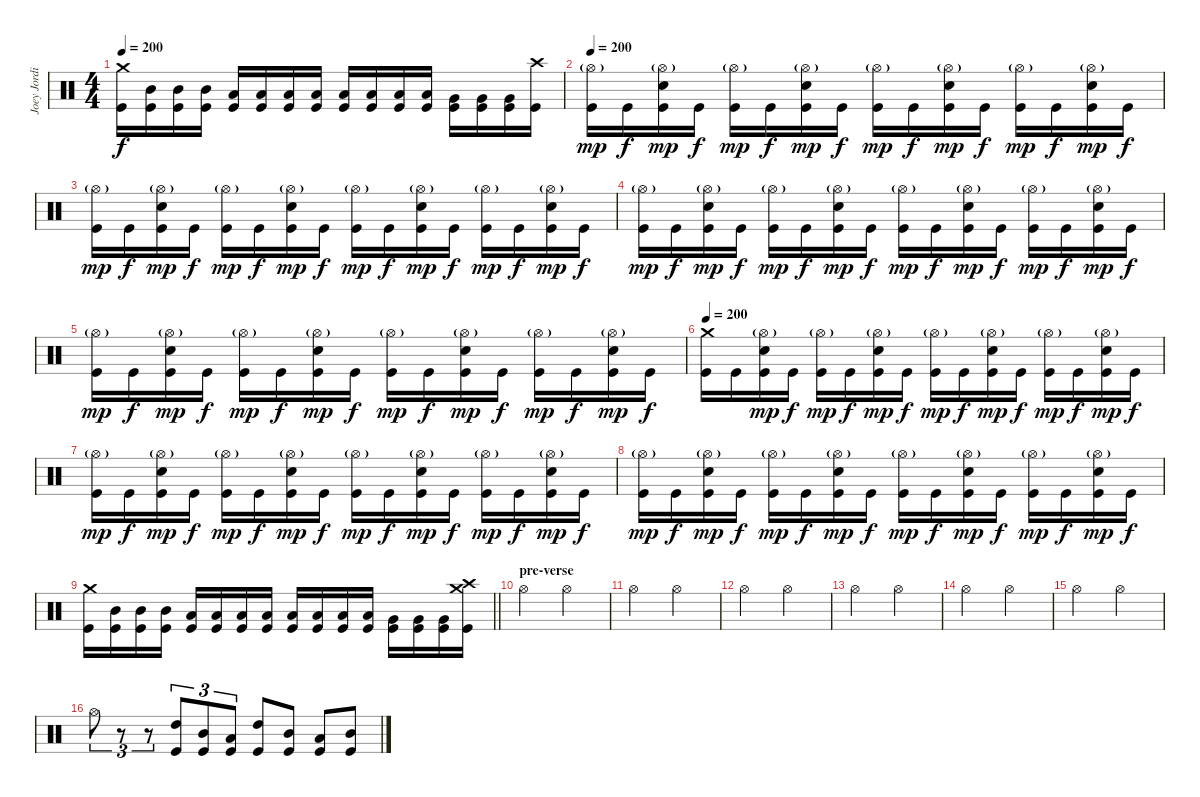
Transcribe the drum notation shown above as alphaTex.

\track ("Joey Jordison" "Joey Jordi") {instrument percussion}
\staff {score}
\articulation defaults
\ts (4 4)
\tempo 200
\clef neutral
\ks c
("Crash medium (hit)" "Kick (hit)").16{dy f} ("Mid Tom (hit)" "Kick (hit)").16 ("Mid Tom (hit)" "Kick (hit)").16 ("Mid Tom (hit)" "Kick (hit)").16 ("Low Tom (hit)" "Kick (hit)").16 ("Low Tom (hit)" "Kick (hit)").16 ("Low Tom (hit)" "Kick (hit)").16 ("Low Tom (hit)" "Kick (hit)").16 ("Low Floor Tom (hit)" "Kick (hit)").16 ("Low Floor Tom (hit)" "Kick (hit)").16 ("Low Floor Tom (hit)" "Kick (hit)").16 ("Low Floor Tom (hit)" "Kick (hit)").16 ("Very Low Tom (hit)" "Kick (hit)").16 ("Very Low Tom (hit)" "Kick (hit)").16 ("Very Low Tom (hit)" "Kick (hit)").16 ("Crash high (hit)" "Kick (hit)").16 |
\tempo 200
("Hi-Hat (open)"{g} "Kick (hit)").16{dy mp} "Kick (hit)".16{dy f} ("Hi-Hat (open)"{g} "Electric Snare (hit)" "Kick (hit)").16{dy mp} "Kick (hit)".16{dy f} ("Hi-Hat (open)"{g} "Kick (hit)").16{dy mp} "Kick (hit)".16{dy f} ("Hi-Hat (open)"{g} "Electric Snare (hit)" "Kick (hit)").16{dy mp} "Kick (hit)".16{dy f} ("Hi-Hat (open)"{g} "Kick (hit)").16{dy mp} "Kick (hit)".16{dy f} ("Hi-Hat (open)"{g} "Electric Snare (hit)" "Kick (hit)").16{dy mp} "Kick (hit)".16{dy f} ("Hi-Hat (open)"{g} "Kick (hit)").16{dy mp} "Kick (hit)".16{dy f} ("Hi-Hat (open)"{g} "Electric Snare (hit)" "Kick (hit)").16{dy mp} "Kick (hit)".16{dy f} |
("Hi-Hat (open)"{g} "Kick (hit)").16{dy mp} "Kick (hit)".16{dy f} ("Hi-Hat (open)"{g} "Electric Snare (hit)" "Kick (hit)").16{dy mp} "Kick (hit)".16{dy f} ("Hi-Hat (open)"{g} "Kick (hit)").16{dy mp} "Kick (hit)".16{dy f} ("Hi-Hat (open)"{g} "Electric Snare (hit)" "Kick (hit)").16{dy mp} "Kick (hit)".16{dy f} ("Hi-Hat (open)"{g} "Kick (hit)").16{dy mp} "Kick (hit)".16{dy f} ("Hi-Hat (open)"{g} "Electric Snare (hit)" "Kick (hit)").16{dy mp} "Kick (hit)".16{dy f} ("Hi-Hat (open)"{g} "Kick (hit)").16{dy mp} "Kick (hit)".16{dy f} ("Hi-Hat (open)"{g} "Electric Snare (hit)" "Kick (hit)").16{dy mp} "Kick (hit)".16{dy f} |
("Hi-Hat (open)"{g} "Kick (hit)").16{dy mp} "Kick (hit)".16{dy f} ("Hi-Hat (open)"{g} "Electric Snare (hit)" "Kick (hit)").16{dy mp} "Kick (hit)".16{dy f} ("Hi-Hat (open)"{g} "Kick (hit)").16{dy mp} "Kick (hit)".16{dy f} ("Hi-Hat (open)"{g} "Electric Snare (hit)" "Kick (hit)").16{dy mp} "Kick (hit)".16{dy f} ("Hi-Hat (open)"{g} "Kick (hit)").16{dy mp} "Kick (hit)".16{dy f} ("Hi-Hat (open)"{g} "Electric Snare (hit)" "Kick (hit)").16{dy mp} "Kick (hit)".16{dy f} ("Hi-Hat (open)"{g} "Kick (hit)").16{dy mp} "Kick (hit)".16{dy f} ("Hi-Hat (open)"{g} "Electric Snare (hit)" "Kick (hit)").16{dy mp} "Kick (hit)".16{dy f} |
("Hi-Hat (open)"{g} "Kick (hit)").16{dy mp} "Kick (hit)".16{dy f} ("Hi-Hat (open)"{g} "Electric Snare (hit)" "Kick (hit)").16{dy mp} "Kick (hit)".16{dy f} ("Hi-Hat (open)"{g} "Kick (hit)").16{dy mp} "Kick (hit)".16{dy f} ("Hi-Hat (open)"{g} "Electric Snare (hit)" "Kick (hit)").16{dy mp} "Kick (hit)".16{dy f} ("Hi-Hat (open)"{g} "Kick (hit)").16{dy mp} "Kick (hit)".16{dy f} ("Hi-Hat (open)"{g} "Electric Snare (hit)" "Kick (hit)").16{dy mp} "Kick (hit)".16{dy f} ("Hi-Hat (open)"{g} "Kick (hit)").16{dy mp} "Kick (hit)".16{dy f} ("Hi-Hat (open)"{g} "Electric Snare (hit)" "Kick (hit)").16{dy mp} "Kick (hit)".16{dy f} |
\tempo 200
("Crash medium (hit)" "Kick (hit)").16 "Kick (hit)".16 ("Hi-Hat (open)"{g} "Electric Snare (hit)" "Kick (hit)").16{dy mp} "Kick (hit)".16{dy f} ("Hi-Hat (open)"{g} "Kick (hit)").16{dy mp} "Kick (hit)".16{dy f} ("Hi-Hat (open)"{g} "Electric Snare (hit)" "Kick (hit)").16{dy mp} "Kick (hit)".16{dy f} ("Hi-Hat (open)"{g} "Kick (hit)").16{dy mp} "Kick (hit)".16{dy f} ("Hi-Hat (open)"{g} "Electric Snare (hit)" "Kick (hit)").16{dy mp} "Kick (hit)".16{dy f} ("Hi-Hat (open)"{g} "Kick (hit)").16{dy mp} "Kick (hit)".16{dy f} ("Hi-Hat (open)"{g} "Electric Snare (hit)" "Kick (hit)").16{dy mp} "Kick (hit)".16{dy f} |
("Hi-Hat (open)"{g} "Kick (hit)").16{dy mp} "Kick (hit)".16{dy f} ("Hi-Hat (open)"{g} "Electric Snare (hit)" "Kick (hit)").16{dy mp} "Kick (hit)".16{dy f} ("Hi-Hat (open)"{g} "Kick (hit)").16{dy mp} "Kick (hit)".16{dy f} ("Hi-Hat (open)"{g} "Electric Snare (hit)" "Kick (hit)").16{dy mp} "Kick (hit)".16{dy f} ("Hi-Hat (open)"{g} "Kick (hit)").16{dy mp} "Kick (hit)".16{dy f} ("Hi-Hat (open)"{g} "Electric Snare (hit)" "Kick (hit)").16{dy mp} "Kick (hit)".16{dy f} ("Hi-Hat (open)"{g} "Kick (hit)").16{dy mp} "Kick (hit)".16{dy f} ("Hi-Hat (open)"{g} "Electric Snare (hit)" "Kick (hit)").16{dy mp} "Kick (hit)".16{dy f} |
("Hi-Hat (open)"{g} "Kick (hit)").16{dy mp} "Kick (hit)".16{dy f} ("Hi-Hat (open)"{g} "Electric Snare (hit)" "Kick (hit)").16{dy mp} "Kick (hit)".16{dy f} ("Hi-Hat (open)"{g} "Kick (hit)").16{dy mp} "Kick (hit)".16{dy f} ("Hi-Hat (open)"{g} "Electric Snare (hit)" "Kick (hit)").16{dy mp} "Kick (hit)".16{dy f} ("Hi-Hat (open)"{g} "Kick (hit)").16{dy mp} "Kick (hit)".16{dy f} ("Hi-Hat (open)"{g} "Electric Snare (hit)" "Kick (hit)").16{dy mp} "Kick (hit)".16{dy f} ("Hi-Hat (open)"{g} "Kick (hit)").16{dy mp} "Kick (hit)".16{dy f} ("Hi-Hat (open)"{g} "Electric Snare (hit)" "Kick (hit)").16{dy mp} "Kick (hit)".16{dy f} |
\barLineRight lightlight
("Crash medium (hit)" "Kick (hit)").16 ("Mid Tom (hit)" "Kick (hit)").16 ("Mid Tom (hit)" "Kick (hit)").16 ("Mid Tom (hit)" "Kick (hit)").16 ("Low Tom (hit)" "Kick (hit)").16 ("Low Tom (hit)" "Kick (hit)").16 ("Low Tom (hit)" "Kick (hit)").16 ("Low Tom (hit)" "Kick (hit)").16 ("Low Floor Tom (hit)" "Kick (hit)").16 ("Low Floor Tom (hit)" "Kick (hit)").16 ("Low Floor Tom (hit)" "Kick (hit)").16 ("Low Floor Tom (hit)" "Kick (hit)").16 ("Very Low Tom (hit)" "Kick (hit)").16 ("Very Low Tom (hit)" "Kick (hit)").16 ("Very Low Tom (hit)" "Kick (hit)").16 ("Crash medium (hit)" "Crash high (hit)" "Kick (hit)").16 |
\section ("" "pre-verse")
"Hi-Hat (open)".2 "Hi-Hat (open)".2 |
"Hi-Hat (open)".2 "Hi-Hat (open)".2 |
"Hi-Hat (open)".2 "Hi-Hat (open)".2 |
"Hi-Hat (open)".2 "Hi-Hat (open)".2 |
"Hi-Hat (open)".2 "Hi-Hat (open)".2 |
"Hi-Hat (open)".2 "Hi-Hat (open)".2 |
"Hi-Hat (open)".8{tu (3 2)} r.8{tu (3 2)} r.8{tu (3 2)} ("High Tom (hit)" "Kick (hit)").8{tu (3 2)} ("Mid Tom (hit)" "Kick (hit)").8{tu (3 2)} ("Low Tom (hit)" "Kick (hit)").8{tu (3 2)} ("High Tom (hit)" "Kick (hit)").8 ("Mid Tom (hit)" "Kick (hit)").8 ("Low Tom (hit)" "Kick (hit)").8 ("Mid Tom (hit)" "Kick (hit)").8
